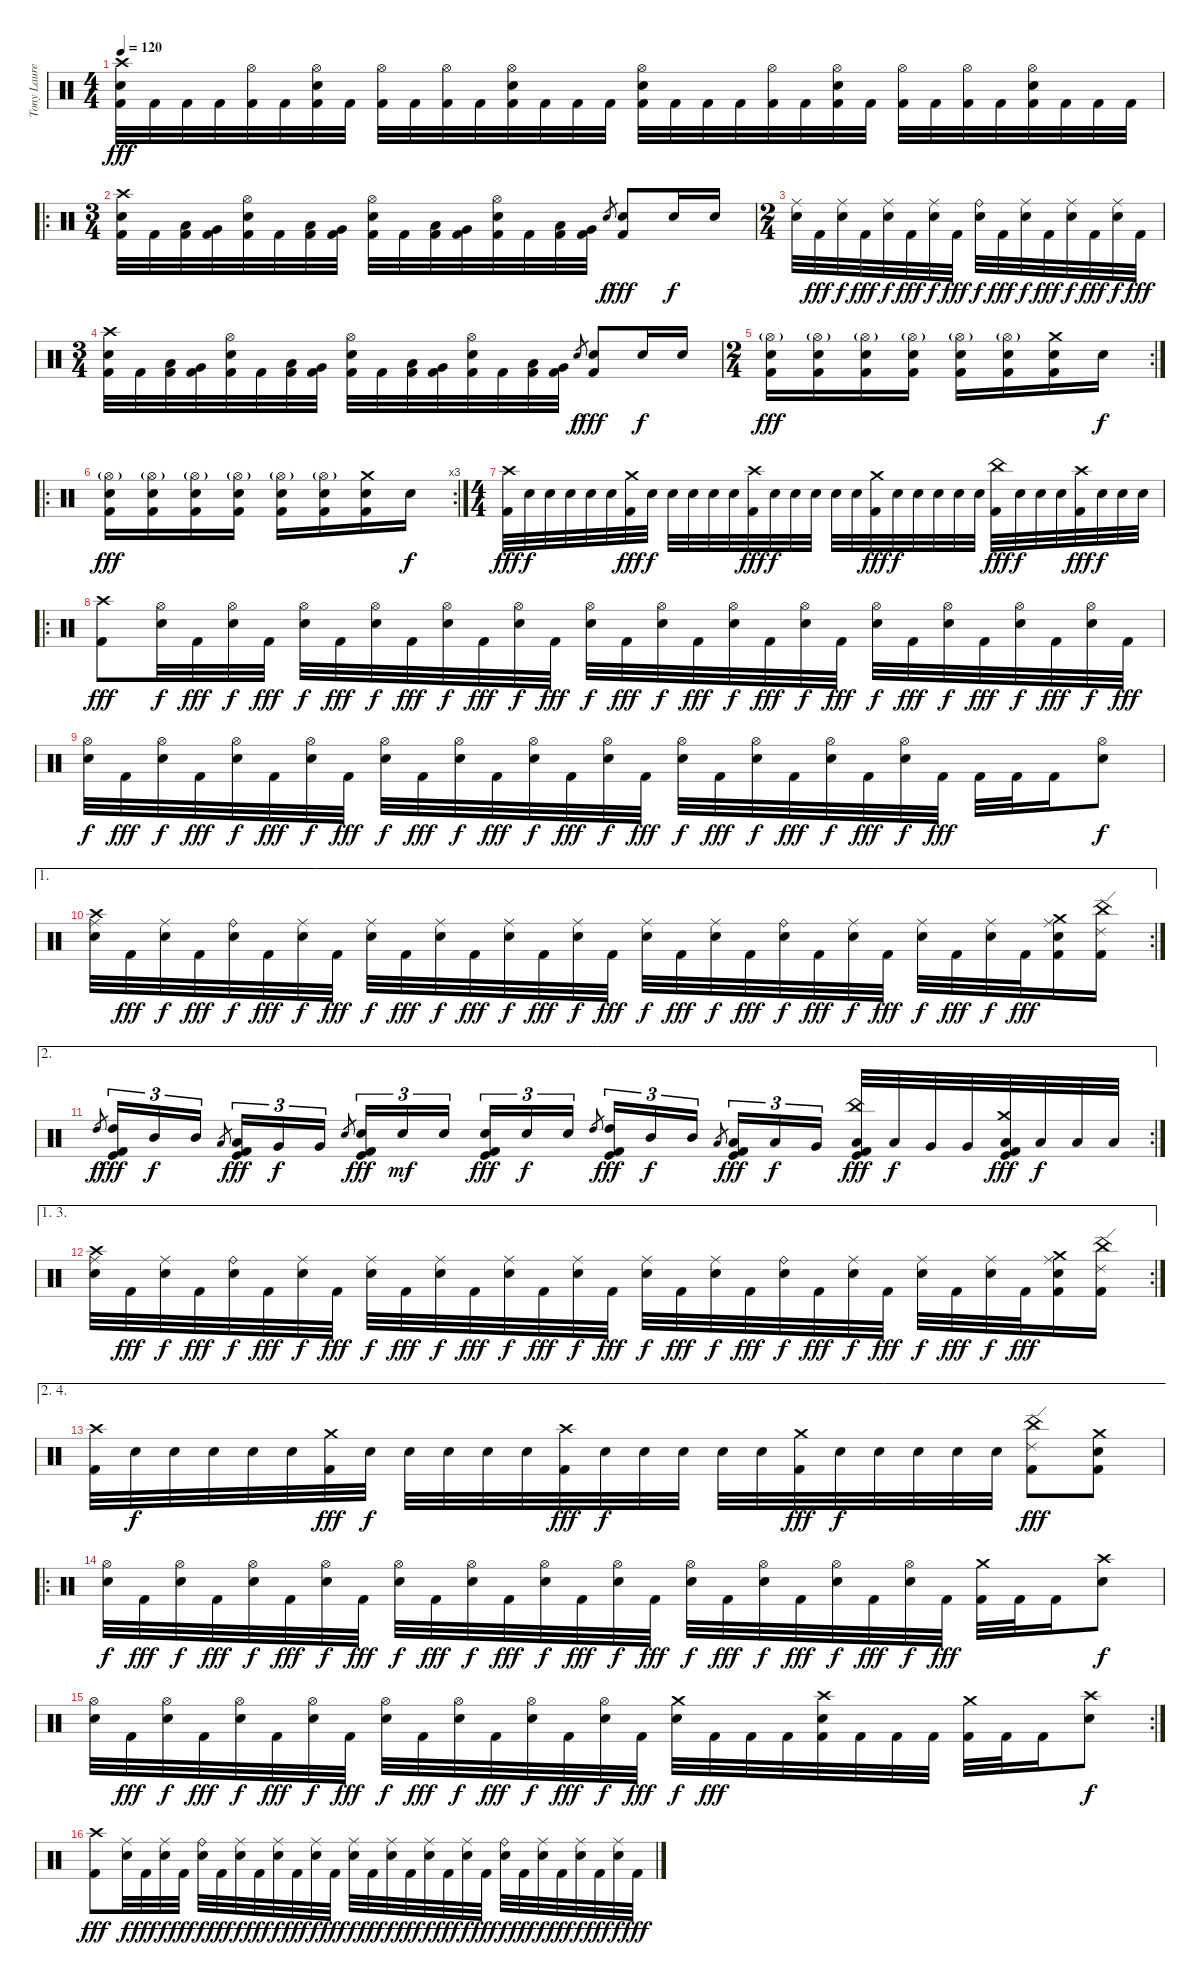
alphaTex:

\track ("Tony Laureano" "Tony Laure") {instrument percussion}
\staff {score}
\articulation defaults
\ts (4 4)
\tempo 120
\clef neutral
\ks c
("Crash high (hit)" "Snare (hit) 2" "Kick (hit) 2").32{dy fff} "Kick (hit) 2".32 "Kick (hit) 2".32 "Kick (hit) 2".32 ("Hi-Hat (open)" "Kick (hit) 2").32 "Kick (hit) 2".32 ("Hi-Hat (open)" "Snare (hit) 2" "Kick (hit) 2").32 "Kick (hit) 2".32 ("Hi-Hat (open)" "Kick (hit) 2").32 "Kick (hit) 2".32 ("Hi-Hat (open)" "Kick (hit) 2").32 "Kick (hit) 2".32 ("Hi-Hat (open)" "Snare (hit) 2" "Kick (hit) 2").32 "Kick (hit) 2".32 "Kick (hit) 2".32 "Kick (hit) 2".32 ("Hi-Hat (open)" "Snare (hit) 2" "Kick (hit) 2").32 "Kick (hit) 2".32 "Kick (hit) 2".32 "Kick (hit) 2".32 ("Hi-Hat (open)" "Kick (hit) 2").32 "Kick (hit) 2".32 ("Hi-Hat (open)" "Snare (hit) 2" "Kick (hit) 2").32 "Kick (hit) 2".32 ("Hi-Hat (open)" "Kick (hit) 2").32 "Kick (hit) 2".32 ("Hi-Hat (open)" "Kick (hit) 2").32 "Kick (hit) 2".32 ("Hi-Hat (open)" "Snare (hit) 2" "Kick (hit) 2").32 "Kick (hit) 2".32 "Kick (hit) 2".32 "Kick (hit) 2".32 |
\ro
\ts (3 4)
("Crash high (hit)" "Snare (hit) 2" "Kick (hit) 2").32 "Kick (hit) 2".32 ("Low Tom (hit)" "Kick (hit) 2").32 ("Very Low Tom (hit)" "Kick (hit) 2").32 ("Hi-Hat (open)" "Snare (hit) 2" "Kick (hit) 2").32 "Kick (hit) 2".32 ("Low Tom (hit)" "Kick (hit) 2").32 ("Very Low Tom (hit)" "Kick (hit) 2").32 ("Hi-Hat (open)" "Snare (hit) 2" "Kick (hit) 2").32 "Kick (hit) 2".32 ("Low Tom (hit)" "Kick (hit) 2").32 ("Very Low Tom (hit)" "Kick (hit) 2").32 ("Hi-Hat (open)" "Snare (hit) 2" "Kick (hit) 2").32 "Kick (hit) 2".32 ("Low Tom (hit)" "Kick (hit) 2").32 ("Very Low Tom (hit)" "Kick (hit) 2").32 "Snare (hit) 2".8{gr dy f} ("Snare (hit) 2" "Kick (hit) 2").8{dy fff} "Snare (hit) 2".16{dy f} "Snare (hit) 2".16 |
\ts (2 4)
("Ride (middle)" "Snare (hit) 2").32 "Kick (hit) 2".32{dy fff} ("Ride (middle)" "Snare (hit) 2").32{dy f} "Kick (hit) 2".32{dy fff} ("Ride (middle)" "Snare (hit) 2").32{dy f} "Kick (hit) 2".32{dy fff} ("Ride (middle)" "Snare (hit) 2").32{dy f} "Kick (hit) 2".32{dy fff} ("Ride (bell)" "Snare (hit) 2").32{dy f} "Kick (hit) 2".32{dy fff} ("Ride (middle)" "Snare (hit) 2").32{dy f} "Kick (hit) 2".32{dy fff} ("Ride (middle)" "Snare (hit) 2").32{dy f} "Kick (hit) 2".32{dy fff} ("Ride (middle)" "Snare (hit) 2").32{dy f} "Kick (hit) 2".32{dy fff} |
\ts (3 4)
("Crash high (hit)" "Snare (hit) 2" "Kick (hit) 2").32 "Kick (hit) 2".32 ("Low Tom (hit)" "Kick (hit) 2").32 ("Very Low Tom (hit)" "Kick (hit) 2").32 ("Hi-Hat (open)" "Snare (hit) 2" "Kick (hit) 2").32 "Kick (hit) 2".32 ("Low Tom (hit)" "Kick (hit) 2").32 ("Very Low Tom (hit)" "Kick (hit) 2").32 ("Hi-Hat (open)" "Snare (hit) 2" "Kick (hit) 2").32 "Kick (hit) 2".32 ("Low Tom (hit)" "Kick (hit) 2").32 ("Very Low Tom (hit)" "Kick (hit) 2").32 ("Hi-Hat (open)" "Snare (hit) 2" "Kick (hit) 2").32 "Kick (hit) 2".32 ("Low Tom (hit)" "Kick (hit) 2").32 ("Very Low Tom (hit)" "Kick (hit) 2").32 "Snare (hit) 2".8{gr dy f} ("Snare (hit) 2" "Kick (hit) 2").8{dy fff} "Snare (hit) 2".16{dy f} "Snare (hit) 2".16 |
\rc 2
\ts (2 4)
("Hi-Hat (open)"{g} "Snare (hit) 2" "Kick (hit) 2").16{dy fff} ("Hi-Hat (open)"{g} "Snare (hit) 2" "Kick (hit) 2").16 ("Hi-Hat (open)"{g} "Snare (hit) 2" "Kick (hit) 2").16 ("Hi-Hat (open)"{g} "Snare (hit) 2" "Kick (hit) 2").16 ("Hi-Hat (open)"{g} "Snare (hit) 2" "Kick (hit) 2").16 ("Hi-Hat (open)"{g} "Snare (hit) 2" "Kick (hit) 2").16 ("Crash medium (hit)" "Snare (hit) 2" "Kick (hit) 2").16 "Snare (hit) 2".16{dy f} |
\ro
\rc 3
("Hi-Hat (open)"{g} "Snare (hit) 2" "Kick (hit) 2").16{dy fff} ("Hi-Hat (open)"{g} "Snare (hit) 2" "Kick (hit) 2").16 ("Hi-Hat (open)"{g} "Snare (hit) 2" "Kick (hit) 2").16 ("Hi-Hat (open)"{g} "Snare (hit) 2" "Kick (hit) 2").16 ("Hi-Hat (open)"{g} "Snare (hit) 2" "Kick (hit) 2").16 ("Hi-Hat (open)"{g} "Snare (hit) 2" "Kick (hit) 2").16 ("Crash medium (hit)" "Snare (hit) 2" "Kick (hit) 2").16 "Snare (hit) 2".16{dy f} |
\ts (4 4)
("Crash high (hit)" "Kick (hit) 2").32{dy fff} "Snare (hit) 2".32{dy f} "Snare (hit) 2".32 "Snare (hit) 2".32 "Snare (hit) 2".32 "Snare (hit) 2".32 ("Crash medium (hit)" "Kick (hit) 2").32{dy fff} "Snare (hit) 2".32{dy f} "Snare (hit) 2".32 "Snare (hit) 2".32 "Snare (hit) 2".32 "Snare (hit) 2".32 ("Crash high (hit)" "Kick (hit) 2").32{dy fff} "Snare (hit) 2".32{dy f} "Snare (hit) 2".32 "Snare (hit) 2".32 "Snare (hit) 2".32 "Snare (hit) 2".32 ("Crash medium (hit)" "Kick (hit) 2").32{dy fff} "Snare (hit) 2".32{dy f} "Snare (hit) 2".32 "Snare (hit) 2".32 "Snare (hit) 2".32 "Snare (hit) 2".32 ("China (hit)" "Kick (hit) 2").32{dy fff} "Snare (hit) 2".32{dy f} "Snare (hit) 2".32 "Snare (hit) 2".32 ("Crash high (hit)" "Kick (hit) 2").32{dy fff} "Snare (hit) 2".32{dy f} "Snare (hit) 2".32 "Snare (hit) 2".32 |
\ro
("Crash high (hit)" "Kick (hit) 2").8{dy fff} ("Hi-Hat (open)" "Snare (hit) 2").32{dy f} "Kick (hit) 2".32{dy fff} ("Hi-Hat (open)" "Snare (hit) 2").32{dy f} "Kick (hit) 2".32{dy fff} ("Hi-Hat (open)" "Snare (hit) 2").32{dy f} "Kick (hit) 2".32{dy fff} ("Hi-Hat (open)" "Snare (hit) 2").32{dy f} "Kick (hit) 2".32{dy fff} ("Hi-Hat (open)" "Snare (hit) 2").32{dy f} "Kick (hit) 2".32{dy fff} ("Hi-Hat (open)" "Snare (hit) 2").32{dy f} "Kick (hit) 2".32{dy fff} ("Hi-Hat (open)" "Snare (hit) 2").32{dy f} "Kick (hit) 2".32{dy fff} ("Hi-Hat (open)" "Snare (hit) 2").32{dy f} "Kick (hit) 2".32{dy fff} ("Hi-Hat (open)" "Snare (hit) 2").32{dy f} "Kick (hit) 2".32{dy fff} ("Hi-Hat (open)" "Snare (hit) 2").32{dy f} "Kick (hit) 2".32{dy fff} ("Hi-Hat (open)" "Snare (hit) 2").32{dy f} "Kick (hit) 2".32{dy fff} ("Hi-Hat (open)" "Snare (hit) 2").32{dy f} "Kick (hit) 2".32{dy fff} ("Hi-Hat (open)" "Snare (hit) 2").32{dy f} "Kick (hit) 2".32{dy fff} ("Hi-Hat (open)" "Snare (hit) 2").32{dy f} "Kick (hit) 2".32{dy fff} |
("Hi-Hat (open)" "Snare (hit) 2").32{dy f} "Kick (hit) 2".32{dy fff} ("Hi-Hat (open)" "Snare (hit) 2").32{dy f} "Kick (hit) 2".32{dy fff} ("Hi-Hat (open)" "Snare (hit) 2").32{dy f} "Kick (hit) 2".32{dy fff} ("Hi-Hat (open)" "Snare (hit) 2").32{dy f} "Kick (hit) 2".32{dy fff} ("Hi-Hat (open)" "Snare (hit) 2").32{dy f} "Kick (hit) 2".32{dy fff} ("Hi-Hat (open)" "Snare (hit) 2").32{dy f} "Kick (hit) 2".32{dy fff} ("Hi-Hat (open)" "Snare (hit) 2").32{dy f} "Kick (hit) 2".32{dy fff} ("Hi-Hat (open)" "Snare (hit) 2").32{dy f} "Kick (hit) 2".32{dy fff} ("Hi-Hat (open)" "Snare (hit) 2").32{dy f} "Kick (hit) 2".32{dy fff} ("Hi-Hat (open)" "Snare (hit) 2").32{dy f} "Kick (hit) 2".32{dy fff} ("Hi-Hat (open)" "Snare (hit) 2").32{dy f} "Kick (hit) 2".32{dy fff} ("Hi-Hat (open)" "Snare (hit) 2").32{dy f} "Kick (hit) 2".32{dy fff} "Kick (hit) 2".32 "Kick (hit) 2".32 "Kick (hit) 2".16 ("Hi-Hat (open)" "Snare (hit) 2").8{dy f} |
\ae 1
\rc 2
("Crash high (hit)" "Ride (middle)" "Snare (hit) 2").32 "Kick (hit) 2".32{dy fff} ("Ride (middle)" "Snare (hit) 2").32{dy f} "Kick (hit) 2".32{dy fff} ("Ride (bell)" "Snare (hit) 2").32{dy f} "Kick (hit) 2".32{dy fff} ("Ride (middle)" "Snare (hit) 2").32{dy f} "Kick (hit) 2".32{dy fff} ("Ride (middle)" "Snare (hit) 2").32{dy f} "Kick (hit) 2".32{dy fff} ("Ride (middle)" "Snare (hit) 2").32{dy f} "Kick (hit) 2".32{dy fff} ("Ride (middle)" "Snare (hit) 2").32{dy f} "Kick (hit) 2".32{dy fff} ("Ride (middle)" "Snare (hit) 2").32{dy f} "Kick (hit) 2".32{dy fff} ("Ride (middle)" "Snare (hit) 2").32{dy f} "Kick (hit) 2".32{dy fff} ("Ride (middle)" "Snare (hit) 2").32{dy f} "Kick (hit) 2".32{dy fff} ("Ride (bell)" "Snare (hit) 2").32{dy f} "Kick (hit) 2".32{dy fff} ("Ride (middle)" "Snare (hit) 2").32{dy f} "Kick (hit) 2".32{dy fff} ("Ride (middle)" "Snare (hit) 2").32{dy f} "Kick (hit) 2".32{dy fff} ("Ride (middle)" "Snare (hit) 2").32{dy f} "Kick (hit) 2".32{dy fff} ("Crash medium (hit)" "Ride (middle)" "Snare (hit) 2" "Kick (hit) 2").16 ("China (hit)" "Ride (edge) 2" "Kick (hit) 2").16 |
\ae 2
\rc 2 "High Tom (hit)".8{gr dy f}
("High Tom (hit)" "Kick (hit)" "Kick (hit) 2").16{tu (3 2) dy fff} "Mid Tom (hit)".16{tu (3 2) dy f} "Mid Tom (hit)".16{tu (3 2)} "Low Tom (hit)".8{gr} ("Low Tom (hit)" "Kick (hit)" "Kick (hit) 2").16{tu (3 2) dy fff} "Very Low Tom (hit)".16{tu (3 2) dy f} "Very Low Tom (hit)".16{tu (3 2)} "Snare (hit) 2".8{gr} ("Snare (hit) 2" "Kick (hit)" "Kick (hit) 2").16{tu (3 2) dy fff} "Snare (hit) 2".16{tu (3 2) dy mf} "Snare (hit) 2".16{tu (3 2)} ("Snare (hit) 2" "Kick (hit)" "Kick (hit) 2").16{tu (3 2) dy fff} "Snare (hit) 2".16{tu (3 2) dy f} "Snare (hit) 2".16{tu (3 2)} "High Tom (hit)".8{gr} ("High Tom (hit)" "Kick (hit)" "Kick (hit) 2").16{tu (3 2) dy fff} "Mid Tom (hit)".16{tu (3 2) dy f} "Mid Tom (hit)".16{tu (3 2)} "Low Tom (hit)".8{gr} ("Low Tom (hit)" "Kick (hit)" "Kick (hit) 2").16{tu (3 2) dy fff} "Low Tom (hit)".16{tu (3 2) dy f} "Very Low Tom (hit)".16{tu (3 2)} ("China (hit)" "Low Tom (hit)" "Kick (hit)" "Kick (hit) 2").32{dy fff} "Low Tom (hit)".32{dy f} "Very Low Tom (hit)".32 "Very Low Tom (hit)".32 ("Crash medium (hit)" "Low Floor Tom (hit)" "Kick (hit)" "Kick (hit) 2").32{dy fff} "Low Floor Tom (hit)".32{dy f} "Low Floor Tom (hit)".32 "Low Floor Tom (hit)".32 |
\ae (1 3)
\rc 2
("Crash high (hit)" "Ride (middle)" "Snare (hit) 2").32 "Kick (hit) 2".32{dy fff} ("Ride (middle)" "Snare (hit) 2").32{dy f} "Kick (hit) 2".32{dy fff} ("Ride (bell)" "Snare (hit) 2").32{dy f} "Kick (hit) 2".32{dy fff} ("Ride (middle)" "Snare (hit) 2").32{dy f} "Kick (hit) 2".32{dy fff} ("Ride (middle)" "Snare (hit) 2").32{dy f} "Kick (hit) 2".32{dy fff} ("Ride (middle)" "Snare (hit) 2").32{dy f} "Kick (hit) 2".32{dy fff} ("Ride (middle)" "Snare (hit) 2").32{dy f} "Kick (hit) 2".32{dy fff} ("Ride (middle)" "Snare (hit) 2").32{dy f} "Kick (hit) 2".32{dy fff} ("Ride (middle)" "Snare (hit) 2").32{dy f} "Kick (hit) 2".32{dy fff} ("Ride (middle)" "Snare (hit) 2").32{dy f} "Kick (hit) 2".32{dy fff} ("Ride (bell)" "Snare (hit) 2").32{dy f} "Kick (hit) 2".32{dy fff} ("Ride (middle)" "Snare (hit) 2").32{dy f} "Kick (hit) 2".32{dy fff} ("Ride (middle)" "Snare (hit) 2").32{dy f} "Kick (hit) 2".32{dy fff} ("Ride (middle)" "Snare (hit) 2").32{dy f} "Kick (hit) 2".32{dy fff} ("Crash medium (hit)" "Ride (middle)" "Snare (hit) 2" "Kick (hit) 2").16 ("China (hit)" "Ride (edge) 2" "Kick (hit) 2").16 |
\ae (2 4)
("Crash high (hit)" "Kick (hit) 2").32 "Snare (hit) 2".32{dy f} "Snare (hit) 2".32 "Snare (hit) 2".32 "Snare (hit) 2".32 "Snare (hit) 2".32 ("Crash medium (hit)" "Kick (hit) 2").32{dy fff} "Snare (hit) 2".32{dy f} "Snare (hit) 2".32 "Snare (hit) 2".32 "Snare (hit) 2".32 "Snare (hit) 2".32 ("Crash high (hit)" "Kick (hit) 2").32{dy fff} "Snare (hit) 2".32{dy f} "Snare (hit) 2".32 "Snare (hit) 2".32 "Snare (hit) 2".32 "Snare (hit) 2".32 ("Crash medium (hit)" "Kick (hit) 2").32{dy fff} "Snare (hit) 2".32{dy f} "Snare (hit) 2".32 "Snare (hit) 2".32 "Snare (hit) 2".32 "Snare (hit) 2".32 ("China (hit)" "Ride (edge) 2" "Kick (hit) 2").8{dy fff} ("Crash medium (hit)" "Snare (hit) 2" "Kick (hit) 2").8 |
\ro
("Hi-Hat (open)" "Snare (hit) 2").32{dy f} "Kick (hit) 2".32{dy fff} ("Hi-Hat (open)" "Snare (hit) 2").32{dy f} "Kick (hit) 2".32{dy fff} ("Hi-Hat (open)" "Snare (hit) 2").32{dy f} "Kick (hit) 2".32{dy fff} ("Hi-Hat (open)" "Snare (hit) 2").32{dy f} "Kick (hit) 2".32{dy fff} ("Hi-Hat (open)" "Snare (hit) 2").32{dy f} "Kick (hit) 2".32{dy fff} ("Hi-Hat (open)" "Snare (hit) 2").32{dy f} "Kick (hit) 2".32{dy fff} ("Hi-Hat (open)" "Snare (hit) 2").32{dy f} "Kick (hit) 2".32{dy fff} ("Hi-Hat (open)" "Snare (hit) 2").32{dy f} "Kick (hit) 2".32{dy fff} ("Hi-Hat (open)" "Snare (hit) 2").32{dy f} "Kick (hit) 2".32{dy fff} ("Hi-Hat (open)" "Snare (hit) 2").32{dy f} "Kick (hit) 2".32{dy fff} ("Hi-Hat (open)" "Snare (hit) 2").32{dy f} "Kick (hit) 2".32{dy fff} ("Hi-Hat (open)" "Snare (hit) 2").32{dy f} "Kick (hit) 2".32{dy fff} ("Crash medium (hit)" "Kick (hit) 2").32 "Kick (hit) 2".32 "Kick (hit) 2".16 ("Crash high (hit)" "Snare (hit) 2").8{dy f} |
\rc 2
("Hi-Hat (open)" "Snare (hit) 2").32 "Kick (hit) 2".32{dy fff} ("Hi-Hat (open)" "Snare (hit) 2").32{dy f} "Kick (hit) 2".32{dy fff} ("Hi-Hat (open)" "Snare (hit) 2").32{dy f} "Kick (hit) 2".32{dy fff} ("Hi-Hat (open)" "Snare (hit) 2").32{dy f} "Kick (hit) 2".32{dy fff} ("Hi-Hat (open)" "Snare (hit) 2").32{dy f} "Kick (hit) 2".32{dy fff} ("Hi-Hat (open)" "Snare (hit) 2").32{dy f} "Kick (hit) 2".32{dy fff} ("Hi-Hat (open)" "Snare (hit) 2").32{dy f} "Kick (hit) 2".32{dy fff} ("Hi-Hat (open)" "Snare (hit) 2").32{dy f} "Kick (hit) 2".32{dy fff} ("Crash medium (hit)" "Snare (hit) 2").32{dy f} "Kick (hit) 2".32{dy fff} "Kick (hit) 2".32 "Kick (hit) 2".32 ("Crash high (hit)" "Snare (hit) 2" "Kick (hit) 2").32 "Kick (hit) 2".32 "Kick (hit) 2".32 "Kick (hit) 2".32 ("Crash medium (hit)" "Kick (hit) 2").32 "Kick (hit) 2".32 "Kick (hit) 2".16 ("Crash high (hit)" "Snare (hit) 2").8{dy f} |
("Crash high (hit)" "Kick (hit) 2").8{dy fff} ("Ride (middle)" "Snare (hit) 2").32{dy f} "Kick (hit) 2".32{dy fff} ("Ride (middle)" "Snare (hit) 2").32{dy f} "Kick (hit) 2".32{dy fff} ("Ride (bell)" "Snare (hit) 2").32{dy f} "Kick (hit) 2".32{dy fff} ("Ride (middle)" "Snare (hit) 2").32{dy f} "Kick (hit) 2".32{dy fff} ("Ride (middle)" "Snare (hit) 2").32{dy f} "Kick (hit) 2".32{dy fff} ("Ride (middle)" "Snare (hit) 2").32{dy f} "Kick (hit) 2".32{dy fff} ("Ride (middle)" "Snare (hit) 2").32{dy f} "Kick (hit) 2".32{dy fff} ("Ride (middle)" "Snare (hit) 2").32{dy f} "Kick (hit) 2".32{dy fff} ("Ride (middle)" "Snare (hit) 2").32{dy f} "Kick (hit) 2".32{dy fff} ("Ride (middle)" "Snare (hit) 2").32{dy f} "Kick (hit) 2".32{dy fff} ("Ride (bell)" "Snare (hit) 2").32{dy f} "Kick (hit) 2".32{dy fff} ("Ride (middle)" "Snare (hit) 2").32{dy f} "Kick (hit) 2".32{dy fff} ("Ride (middle)" "Snare (hit) 2").32{dy f} "Kick (hit) 2".32{dy fff} ("Ride (middle)" "Snare (hit) 2").32{dy f} "Kick (hit) 2".32{dy fff}
